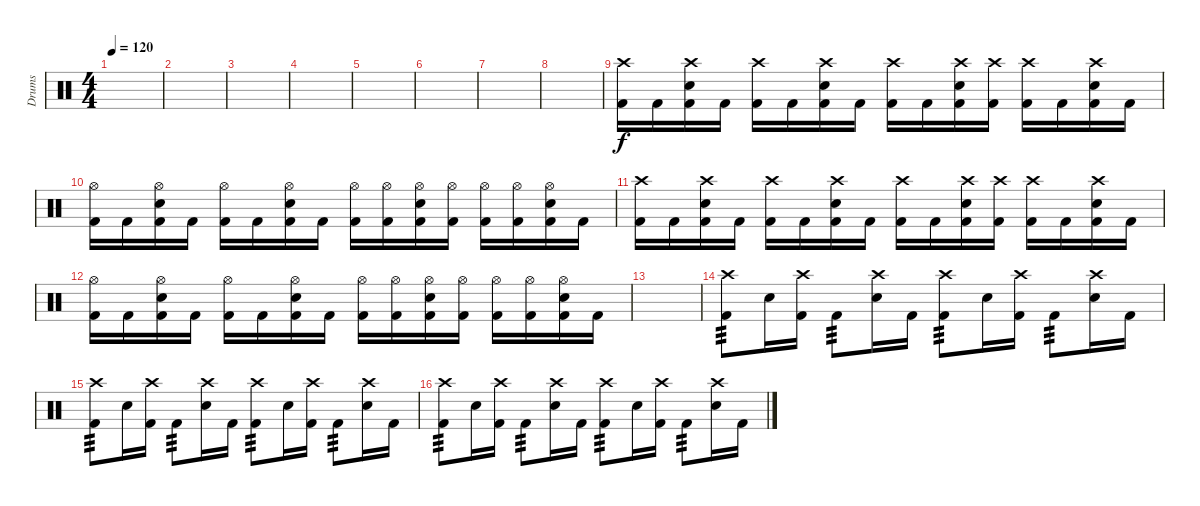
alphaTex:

\track ("Drums" "Drums") {instrument percussion}
\staff {score}
\articulation defaults
\ts (4 4)
\tempo 120
\clef neutral
\ks c
|
|
|
|
|
|
|
|
("Crash high (hit)" "Kick (hit) 2").16 "Kick (hit) 2".16 ("Crash high (hit)" "Electric Snare (hit)" "Kick (hit) 2").16 "Kick (hit) 2".16 ("Crash high (hit)" "Kick (hit) 2").16 "Kick (hit) 2".16 ("Crash high (hit)" "Electric Snare (hit)" "Kick (hit) 2").16 "Kick (hit) 2".16 ("Crash high (hit)" "Kick (hit) 2").16 "Kick (hit) 2".16 ("Crash high (hit)" "Electric Snare (hit)" "Kick (hit) 2").16 ("Crash high (hit)" "Kick (hit) 2").16 ("Crash high (hit)" "Kick (hit) 2").16 "Kick (hit) 2".16 ("Crash high (hit)" "Electric Snare (hit)" "Kick (hit) 2").16 "Kick (hit) 2".16 |
("Hi-Hat (open)" "Kick (hit) 2").16 "Kick (hit) 2".16 ("Hi-Hat (open)" "Electric Snare (hit)" "Kick (hit) 2").16 "Kick (hit) 2".16 ("Hi-Hat (open)" "Kick (hit) 2").16 "Kick (hit) 2".16 ("Hi-Hat (open)" "Electric Snare (hit)" "Kick (hit) 2").16 "Kick (hit) 2".16 ("Hi-Hat (open)" "Kick (hit) 2").16 ("Hi-Hat (open)" "Kick (hit) 2").16 ("Hi-Hat (open)" "Electric Snare (hit)" "Kick (hit) 2").16 ("Hi-Hat (open)" "Kick (hit) 2").16 ("Hi-Hat (open)" "Kick (hit) 2").16 ("Hi-Hat (open)" "Kick (hit) 2").16 ("Hi-Hat (open)" "Electric Snare (hit)" "Kick (hit) 2").16 "Kick (hit) 2".16 |
("Crash high (hit)" "Kick (hit) 2").16 "Kick (hit) 2".16 ("Crash high (hit)" "Electric Snare (hit)" "Kick (hit) 2").16 "Kick (hit) 2".16 ("Crash high (hit)" "Kick (hit) 2").16 "Kick (hit) 2".16 ("Crash high (hit)" "Electric Snare (hit)" "Kick (hit) 2").16 "Kick (hit) 2".16 ("Crash high (hit)" "Kick (hit) 2").16 "Kick (hit) 2".16 ("Crash high (hit)" "Electric Snare (hit)" "Kick (hit) 2").16 ("Crash high (hit)" "Kick (hit) 2").16 ("Crash high (hit)" "Kick (hit) 2").16 "Kick (hit) 2".16 ("Crash high (hit)" "Electric Snare (hit)" "Kick (hit) 2").16 "Kick (hit) 2".16 |
("Hi-Hat (open)" "Kick (hit) 2").16 "Kick (hit) 2".16 ("Hi-Hat (open)" "Electric Snare (hit)" "Kick (hit) 2").16 "Kick (hit) 2".16 ("Hi-Hat (open)" "Kick (hit) 2").16 "Kick (hit) 2".16 ("Hi-Hat (open)" "Electric Snare (hit)" "Kick (hit) 2").16 "Kick (hit) 2".16 ("Hi-Hat (open)" "Kick (hit) 2").16 ("Hi-Hat (open)" "Kick (hit) 2").16 ("Hi-Hat (open)" "Electric Snare (hit)" "Kick (hit) 2").16 ("Hi-Hat (open)" "Kick (hit) 2").16 ("Hi-Hat (open)" "Kick (hit) 2").16 ("Hi-Hat (open)" "Kick (hit) 2").16 ("Hi-Hat (open)" "Electric Snare (hit)" "Kick (hit) 2").16 "Kick (hit) 2".16 |
|
("Crash high (hit)" "Kick (hit) 2").8{tp 3} "Electric Snare (hit)".16 ("Crash high (hit)" "Kick (hit) 2").16 "Kick (hit) 2".8{tp 3} ("Crash high (hit)" "Electric Snare (hit)").16 "Kick (hit) 2".16 ("Crash high (hit)" "Kick (hit) 2").8{tp 3} "Electric Snare (hit)".16 ("Crash high (hit)" "Kick (hit) 2").16 "Kick (hit) 2".8{tp 3} ("Crash high (hit)" "Electric Snare (hit)").16 "Kick (hit) 2".16 |
("Crash high (hit)" "Kick (hit) 2").8{tp 3} "Electric Snare (hit)".16 ("Crash high (hit)" "Kick (hit) 2").16 "Kick (hit) 2".8{tp 3} ("Crash high (hit)" "Electric Snare (hit)").16 "Kick (hit) 2".16 ("Crash high (hit)" "Kick (hit) 2").8{tp 3} "Electric Snare (hit)".16 ("Crash high (hit)" "Kick (hit) 2").16 "Kick (hit) 2".8{tp 3} ("Crash high (hit)" "Electric Snare (hit)").16 "Kick (hit) 2".16 |
("Crash high (hit)" "Kick (hit) 2").8{tp 3} "Electric Snare (hit)".16 ("Crash high (hit)" "Kick (hit) 2").16 "Kick (hit) 2".8{tp 3} ("Crash high (hit)" "Electric Snare (hit)").16 "Kick (hit) 2".16 ("Crash high (hit)" "Kick (hit) 2").8{tp 3} "Electric Snare (hit)".16 ("Crash high (hit)" "Kick (hit) 2").16 "Kick (hit) 2".8{tp 3} ("Crash high (hit)" "Electric Snare (hit)").16 "Kick (hit) 2".16
